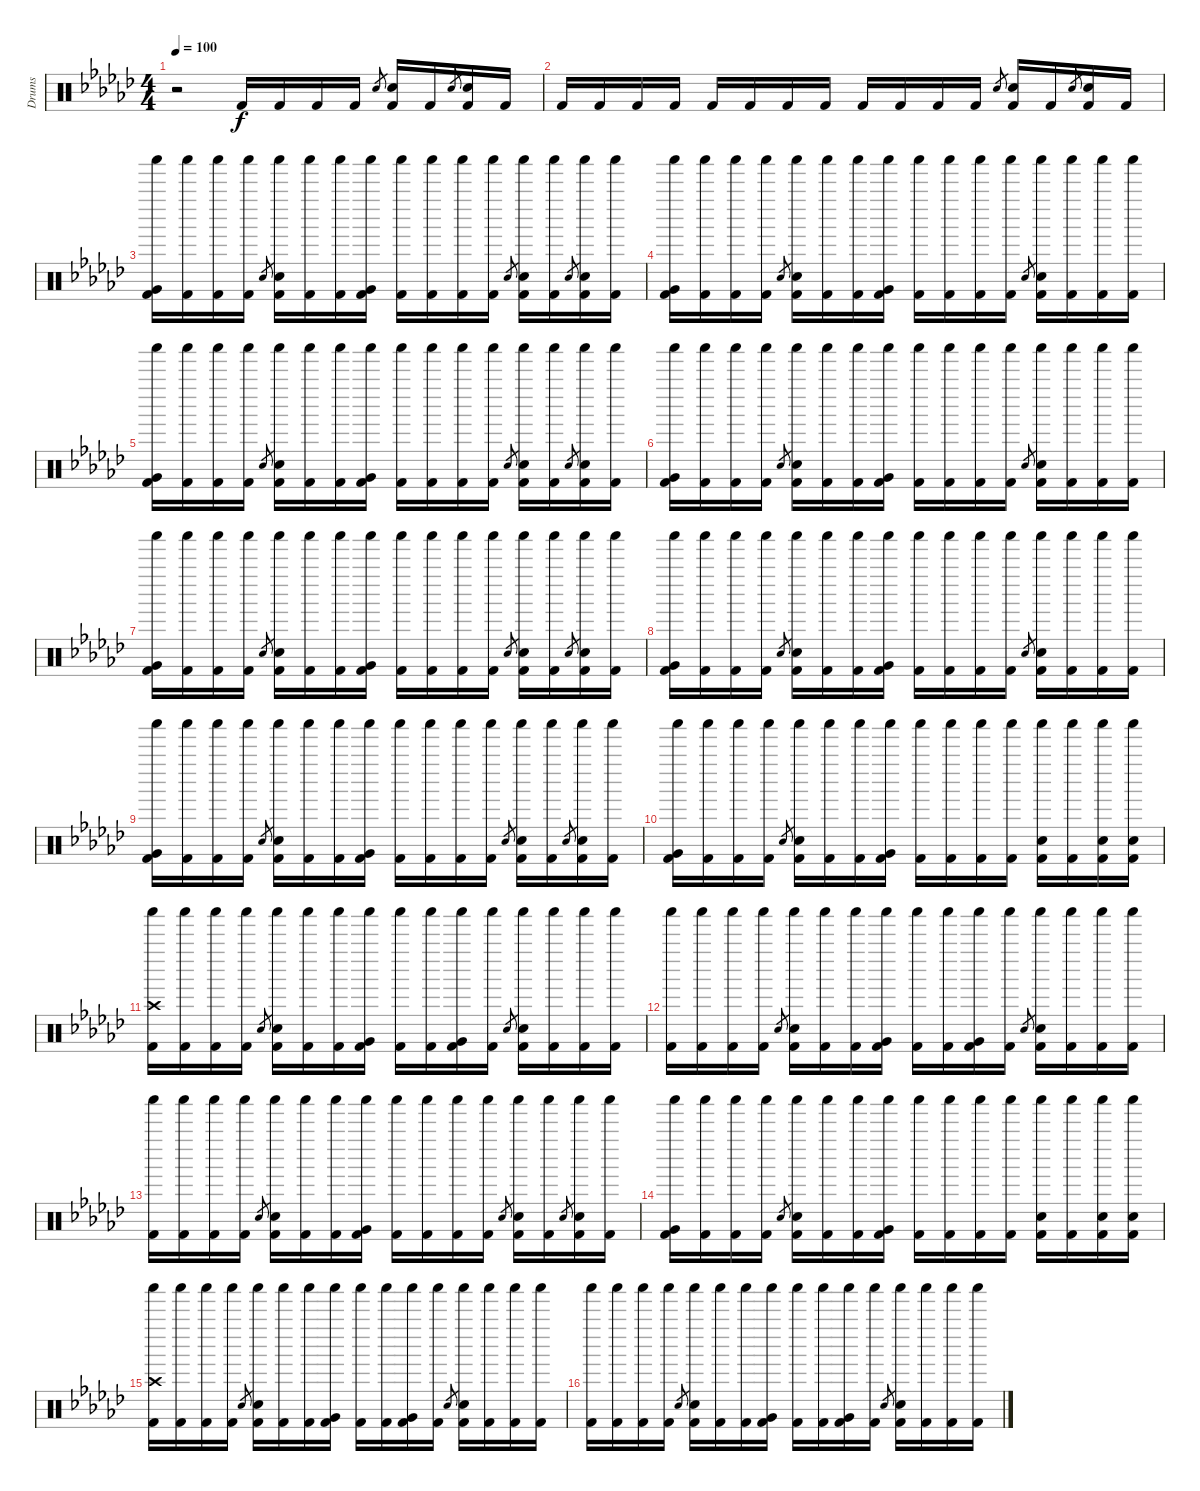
\track ("Drums" "Drums") {instrument percussion}
\staff {score}
\articulation defaults
\ts (4 4)
\tempo 100
\clef neutral
\ks gb
r.2{dy f} "Kick (hit) 2".16 "Kick (hit) 2".16 "Kick (hit) 2".16 "Kick (hit) 2".16 "Electric Snare (hit)".8{gr} ("Electric Snare (hit)" "Kick (hit) 2").16 "Kick (hit) 2".16 "Electric Snare (hit)".8{gr} ("Electric Snare (hit)" "Kick (hit) 2").16 "Kick (hit) 2".16 |
"Kick (hit) 2".16 "Kick (hit) 2".16 "Kick (hit) 2".16 "Kick (hit) 2".16 "Kick (hit) 2".16 "Kick (hit) 2".16 "Kick (hit) 2".16 "Kick (hit) 2".16 "Kick (hit) 2".16 "Kick (hit) 2".16 "Kick (hit) 2".16 "Kick (hit) 2".16 "Electric Snare (hit)".8{gr} ("Electric Snare (hit)" "Kick (hit) 2").16 "Kick (hit) 2".16 "Electric Snare (hit)".8{gr} ("Electric Snare (hit)" "Kick (hit) 2").16 "Kick (hit) 2".16 |
("Shaker (hit)" "Very Low Tom (hit)" "Kick (hit) 2").16 ("Shaker (hit)" "Kick (hit) 2").16 ("Shaker (hit)" "Kick (hit) 2").16 ("Shaker (hit)" "Kick (hit) 2").16 "Electric Snare (hit)".8{gr} ("Shaker (hit)" "Electric Snare (hit)" "Kick (hit) 2").16 ("Shaker (hit)" "Kick (hit) 2").16 ("Shaker (hit)" "Kick (hit) 2").16 ("Shaker (hit)" "Very Low Tom (hit)" "Kick (hit) 2").16 ("Shaker (hit)" "Kick (hit) 2").16 ("Shaker (hit)" "Kick (hit) 2").16 ("Shaker (hit)" "Kick (hit) 2").16 ("Shaker (hit)" "Kick (hit) 2").16 "Electric Snare (hit)".8{gr} ("Shaker (hit)" "Electric Snare (hit)" "Kick (hit) 2").16 ("Shaker (hit)" "Kick (hit) 2").16 "Electric Snare (hit)".8{gr} ("Shaker (hit)" "Electric Snare (hit)" "Kick (hit) 2").16 ("Shaker (hit)" "Kick (hit) 2").16 |
("Shaker (hit)" "Very Low Tom (hit)" "Kick (hit) 2").16 ("Shaker (hit)" "Kick (hit) 2").16 ("Shaker (hit)" "Kick (hit) 2").16 ("Shaker (hit)" "Kick (hit) 2").16 "Electric Snare (hit)".8{gr} ("Shaker (hit)" "Electric Snare (hit)" "Kick (hit) 2").16 ("Shaker (hit)" "Kick (hit) 2").16 ("Shaker (hit)" "Kick (hit) 2").16 ("Shaker (hit)" "Very Low Tom (hit)" "Kick (hit) 2").16 ("Shaker (hit)" "Kick (hit) 2").16 ("Shaker (hit)" "Kick (hit) 2").16 ("Shaker (hit)" "Kick (hit) 2").16 ("Shaker (hit)" "Kick (hit) 2").16 "Electric Snare (hit)".8{gr} ("Shaker (hit)" "Electric Snare (hit)" "Kick (hit) 2").16 ("Shaker (hit)" "Kick (hit) 2").16 ("Shaker (hit)" "Kick (hit) 2").16 ("Shaker (hit)" "Kick (hit) 2").16 |
("Shaker (hit)" "Very Low Tom (hit)" "Kick (hit) 2").16 ("Shaker (hit)" "Kick (hit) 2").16 ("Shaker (hit)" "Kick (hit) 2").16 ("Shaker (hit)" "Kick (hit) 2").16 "Electric Snare (hit)".8{gr} ("Shaker (hit)" "Electric Snare (hit)" "Kick (hit) 2").16 ("Shaker (hit)" "Kick (hit) 2").16 ("Shaker (hit)" "Kick (hit) 2").16 ("Shaker (hit)" "Very Low Tom (hit)" "Kick (hit) 2").16 ("Shaker (hit)" "Kick (hit) 2").16 ("Shaker (hit)" "Kick (hit) 2").16 ("Shaker (hit)" "Kick (hit) 2").16 ("Shaker (hit)" "Kick (hit) 2").16 "Electric Snare (hit)".8{gr} ("Shaker (hit)" "Electric Snare (hit)" "Kick (hit) 2").16 ("Shaker (hit)" "Kick (hit) 2").16 "Electric Snare (hit)".8{gr} ("Shaker (hit)" "Electric Snare (hit)" "Kick (hit) 2").16 ("Shaker (hit)" "Kick (hit) 2").16 |
("Shaker (hit)" "Very Low Tom (hit)" "Kick (hit) 2").16 ("Shaker (hit)" "Kick (hit) 2").16 ("Shaker (hit)" "Kick (hit) 2").16 ("Shaker (hit)" "Kick (hit) 2").16 "Electric Snare (hit)".8{gr} ("Shaker (hit)" "Electric Snare (hit)" "Kick (hit) 2").16 ("Shaker (hit)" "Kick (hit) 2").16 ("Shaker (hit)" "Kick (hit) 2").16 ("Shaker (hit)" "Very Low Tom (hit)" "Kick (hit) 2").16 ("Shaker (hit)" "Kick (hit) 2").16 ("Shaker (hit)" "Kick (hit) 2").16 ("Shaker (hit)" "Kick (hit) 2").16 ("Shaker (hit)" "Kick (hit) 2").16 "Electric Snare (hit)".8{gr} ("Shaker (hit)" "Electric Snare (hit)" "Kick (hit) 2").16 ("Shaker (hit)" "Kick (hit) 2").16 ("Shaker (hit)" "Kick (hit) 2").16 ("Shaker (hit)" "Kick (hit) 2").16 |
("Shaker (hit)" "Very Low Tom (hit)" "Kick (hit) 2").16 ("Shaker (hit)" "Kick (hit) 2").16 ("Shaker (hit)" "Kick (hit) 2").16 ("Shaker (hit)" "Kick (hit) 2").16 "Electric Snare (hit)".8{gr} ("Shaker (hit)" "Electric Snare (hit)" "Kick (hit) 2").16 ("Shaker (hit)" "Kick (hit) 2").16 ("Shaker (hit)" "Kick (hit) 2").16 ("Shaker (hit)" "Very Low Tom (hit)" "Kick (hit) 2").16 ("Shaker (hit)" "Kick (hit) 2").16 ("Shaker (hit)" "Kick (hit) 2").16 ("Shaker (hit)" "Kick (hit) 2").16 ("Shaker (hit)" "Kick (hit) 2").16 "Electric Snare (hit)".8{gr} ("Shaker (hit)" "Electric Snare (hit)" "Kick (hit) 2").16 ("Shaker (hit)" "Kick (hit) 2").16 "Electric Snare (hit)".8{gr} ("Shaker (hit)" "Electric Snare (hit)" "Kick (hit) 2").16 ("Shaker (hit)" "Kick (hit) 2").16 |
("Shaker (hit)" "Very Low Tom (hit)" "Kick (hit) 2").16 ("Shaker (hit)" "Kick (hit) 2").16 ("Shaker (hit)" "Kick (hit) 2").16 ("Shaker (hit)" "Kick (hit) 2").16 "Electric Snare (hit)".8{gr} ("Shaker (hit)" "Electric Snare (hit)" "Kick (hit) 2").16 ("Shaker (hit)" "Kick (hit) 2").16 ("Shaker (hit)" "Kick (hit) 2").16 ("Shaker (hit)" "Very Low Tom (hit)" "Kick (hit) 2").16 ("Shaker (hit)" "Kick (hit) 2").16 ("Shaker (hit)" "Kick (hit) 2").16 ("Shaker (hit)" "Kick (hit) 2").16 ("Shaker (hit)" "Kick (hit) 2").16 "Electric Snare (hit)".8{gr} ("Shaker (hit)" "Electric Snare (hit)" "Kick (hit) 2").16 ("Shaker (hit)" "Kick (hit) 2").16 ("Shaker (hit)" "Kick (hit) 2").16 ("Shaker (hit)" "Kick (hit) 2").16 |
("Shaker (hit)" "Very Low Tom (hit)" "Kick (hit) 2").16 ("Shaker (hit)" "Kick (hit) 2").16 ("Shaker (hit)" "Kick (hit) 2").16 ("Shaker (hit)" "Kick (hit) 2").16 "Electric Snare (hit)".8{gr} ("Shaker (hit)" "Electric Snare (hit)" "Kick (hit) 2").16 ("Shaker (hit)" "Kick (hit) 2").16 ("Shaker (hit)" "Kick (hit) 2").16 ("Shaker (hit)" "Very Low Tom (hit)" "Kick (hit) 2").16 ("Shaker (hit)" "Kick (hit) 2").16 ("Shaker (hit)" "Kick (hit) 2").16 ("Shaker (hit)" "Kick (hit) 2").16 ("Shaker (hit)" "Kick (hit) 2").16 "Electric Snare (hit)".8{gr} ("Shaker (hit)" "Electric Snare (hit)" "Kick (hit) 2").16 ("Shaker (hit)" "Kick (hit) 2").16 "Electric Snare (hit)".8{gr} ("Shaker (hit)" "Electric Snare (hit)" "Kick (hit) 2").16 ("Shaker (hit)" "Kick (hit) 2").16 |
("Shaker (hit)" "Very Low Tom (hit)" "Kick (hit) 2").16 ("Shaker (hit)" "Kick (hit) 2").16 ("Shaker (hit)" "Kick (hit) 2").16 ("Shaker (hit)" "Kick (hit) 2").16 "Electric Snare (hit)".8{gr} ("Shaker (hit)" "Electric Snare (hit)" "Kick (hit) 2").16 ("Shaker (hit)" "Kick (hit) 2").16 ("Shaker (hit)" "Kick (hit) 2").16 ("Shaker (hit)" "Very Low Tom (hit)" "Kick (hit) 2").16 ("Shaker (hit)" "Kick (hit) 2").16 ("Shaker (hit)" "Kick (hit) 2").16 ("Shaker (hit)" "Kick (hit) 2").16 ("Shaker (hit)" "Kick (hit) 2").16 ("Shaker (hit)" "Electric Snare (hit)" "Kick (hit) 2").16 ("Shaker (hit)" "Kick (hit) 2").16 ("Shaker (hit)" "Electric Snare (hit)" "Kick (hit) 2").16 ("Shaker (hit)" "Electric Snare (hit)" "Kick (hit) 2").16 |
("Crash high (hit)" "Shaker (hit)" "Kick (hit) 2").16 ("Shaker (hit)" "Kick (hit) 2").16 ("Shaker (hit)" "Kick (hit) 2").16 ("Shaker (hit)" "Kick (hit) 2").16 "Electric Snare (hit)".8{gr} ("Shaker (hit)" "Electric Snare (hit)" "Kick (hit) 2").16 ("Shaker (hit)" "Kick (hit) 2").16 ("Shaker (hit)" "Kick (hit) 2").16 ("Shaker (hit)" "Very Low Tom (hit)" "Kick (hit) 2").16 ("Shaker (hit)" "Kick (hit) 2").16 ("Shaker (hit)" "Kick (hit) 2").16 ("Shaker (hit)" "Very Low Tom (hit)" "Kick (hit) 2").16 ("Shaker (hit)" "Kick (hit) 2").16 "Electric Snare (hit)".8{gr} ("Shaker (hit)" "Electric Snare (hit)" "Kick (hit) 2").16 ("Shaker (hit)" "Kick (hit) 2").16 ("Shaker (hit)" "Kick (hit) 2").16 ("Shaker (hit)" "Kick (hit) 2").16 |
("Shaker (hit)" "Kick (hit) 2").16 ("Shaker (hit)" "Kick (hit) 2").16 ("Shaker (hit)" "Kick (hit) 2").16 ("Shaker (hit)" "Kick (hit) 2").16 "Electric Snare (hit)".8{gr} ("Shaker (hit)" "Electric Snare (hit)" "Kick (hit) 2").16 ("Shaker (hit)" "Kick (hit) 2").16 ("Shaker (hit)" "Kick (hit) 2").16 ("Shaker (hit)" "Very Low Tom (hit)" "Kick (hit) 2").16 ("Shaker (hit)" "Kick (hit) 2").16 ("Shaker (hit)" "Kick (hit) 2").16 ("Shaker (hit)" "Very Low Tom (hit)" "Kick (hit) 2").16 ("Shaker (hit)" "Kick (hit) 2").16 "Electric Snare (hit)".8{gr} ("Shaker (hit)" "Electric Snare (hit)" "Kick (hit) 2").16 ("Shaker (hit)" "Kick (hit) 2").16 ("Shaker (hit)" "Kick (hit) 2").16 ("Shaker (hit)" "Kick (hit) 2").16 |
("Shaker (hit)" "Kick (hit) 2").16 ("Shaker (hit)" "Kick (hit) 2").16 ("Shaker (hit)" "Kick (hit) 2").16 ("Shaker (hit)" "Kick (hit) 2").16 "Electric Snare (hit)".8{gr} ("Shaker (hit)" "Electric Snare (hit)" "Kick (hit) 2").16 ("Shaker (hit)" "Kick (hit) 2").16 ("Shaker (hit)" "Kick (hit) 2").16 ("Shaker (hit)" "Very Low Tom (hit)" "Kick (hit) 2").16 ("Shaker (hit)" "Kick (hit) 2").16 ("Shaker (hit)" "Kick (hit) 2").16 ("Shaker (hit)" "Kick (hit) 2").16 ("Shaker (hit)" "Kick (hit) 2").16 "Electric Snare (hit)".8{gr} ("Shaker (hit)" "Electric Snare (hit)" "Kick (hit) 2").16 ("Shaker (hit)" "Kick (hit) 2").16 "Electric Snare (hit)".8{gr} ("Shaker (hit)" "Electric Snare (hit)" "Kick (hit) 2").16 ("Shaker (hit)" "Kick (hit) 2").16 |
("Shaker (hit)" "Very Low Tom (hit)" "Kick (hit) 2").16 ("Shaker (hit)" "Kick (hit) 2").16 ("Shaker (hit)" "Kick (hit) 2").16 ("Shaker (hit)" "Kick (hit) 2").16 "Electric Snare (hit)".8{gr} ("Shaker (hit)" "Electric Snare (hit)" "Kick (hit) 2").16 ("Shaker (hit)" "Kick (hit) 2").16 ("Shaker (hit)" "Kick (hit) 2").16 ("Shaker (hit)" "Very Low Tom (hit)" "Kick (hit) 2").16 ("Shaker (hit)" "Kick (hit) 2").16 ("Shaker (hit)" "Kick (hit) 2").16 ("Shaker (hit)" "Kick (hit) 2").16 ("Shaker (hit)" "Kick (hit) 2").16 ("Shaker (hit)" "Electric Snare (hit)" "Kick (hit) 2").16 ("Shaker (hit)" "Kick (hit) 2").16 ("Shaker (hit)" "Electric Snare (hit)" "Kick (hit) 2").16 ("Shaker (hit)" "Electric Snare (hit)" "Kick (hit) 2").16 |
("Crash high (hit)" "Shaker (hit)" "Kick (hit) 2").16 ("Shaker (hit)" "Kick (hit) 2").16 ("Shaker (hit)" "Kick (hit) 2").16 ("Shaker (hit)" "Kick (hit) 2").16 "Electric Snare (hit)".8{gr} ("Shaker (hit)" "Electric Snare (hit)" "Kick (hit) 2").16 ("Shaker (hit)" "Kick (hit) 2").16 ("Shaker (hit)" "Kick (hit) 2").16 ("Shaker (hit)" "Very Low Tom (hit)" "Kick (hit) 2").16 ("Shaker (hit)" "Kick (hit) 2").16 ("Shaker (hit)" "Kick (hit) 2").16 ("Shaker (hit)" "Very Low Tom (hit)" "Kick (hit) 2").16 ("Shaker (hit)" "Kick (hit) 2").16 "Electric Snare (hit)".8{gr} ("Shaker (hit)" "Electric Snare (hit)" "Kick (hit) 2").16 ("Shaker (hit)" "Kick (hit) 2").16 ("Shaker (hit)" "Kick (hit) 2").16 ("Shaker (hit)" "Kick (hit) 2").16 |
("Shaker (hit)" "Kick (hit) 2").16 ("Shaker (hit)" "Kick (hit) 2").16 ("Shaker (hit)" "Kick (hit) 2").16 ("Shaker (hit)" "Kick (hit) 2").16 "Electric Snare (hit)".8{gr} ("Shaker (hit)" "Electric Snare (hit)" "Kick (hit) 2").16 ("Shaker (hit)" "Kick (hit) 2").16 ("Shaker (hit)" "Kick (hit) 2").16 ("Shaker (hit)" "Very Low Tom (hit)" "Kick (hit) 2").16 ("Shaker (hit)" "Kick (hit) 2").16 ("Shaker (hit)" "Kick (hit) 2").16 ("Shaker (hit)" "Very Low Tom (hit)" "Kick (hit) 2").16 ("Shaker (hit)" "Kick (hit) 2").16 "Electric Snare (hit)".8{gr} ("Shaker (hit)" "Electric Snare (hit)" "Kick (hit) 2").16 ("Shaker (hit)" "Kick (hit) 2").16 ("Shaker (hit)" "Kick (hit) 2").16 ("Shaker (hit)" "Kick (hit) 2").16
